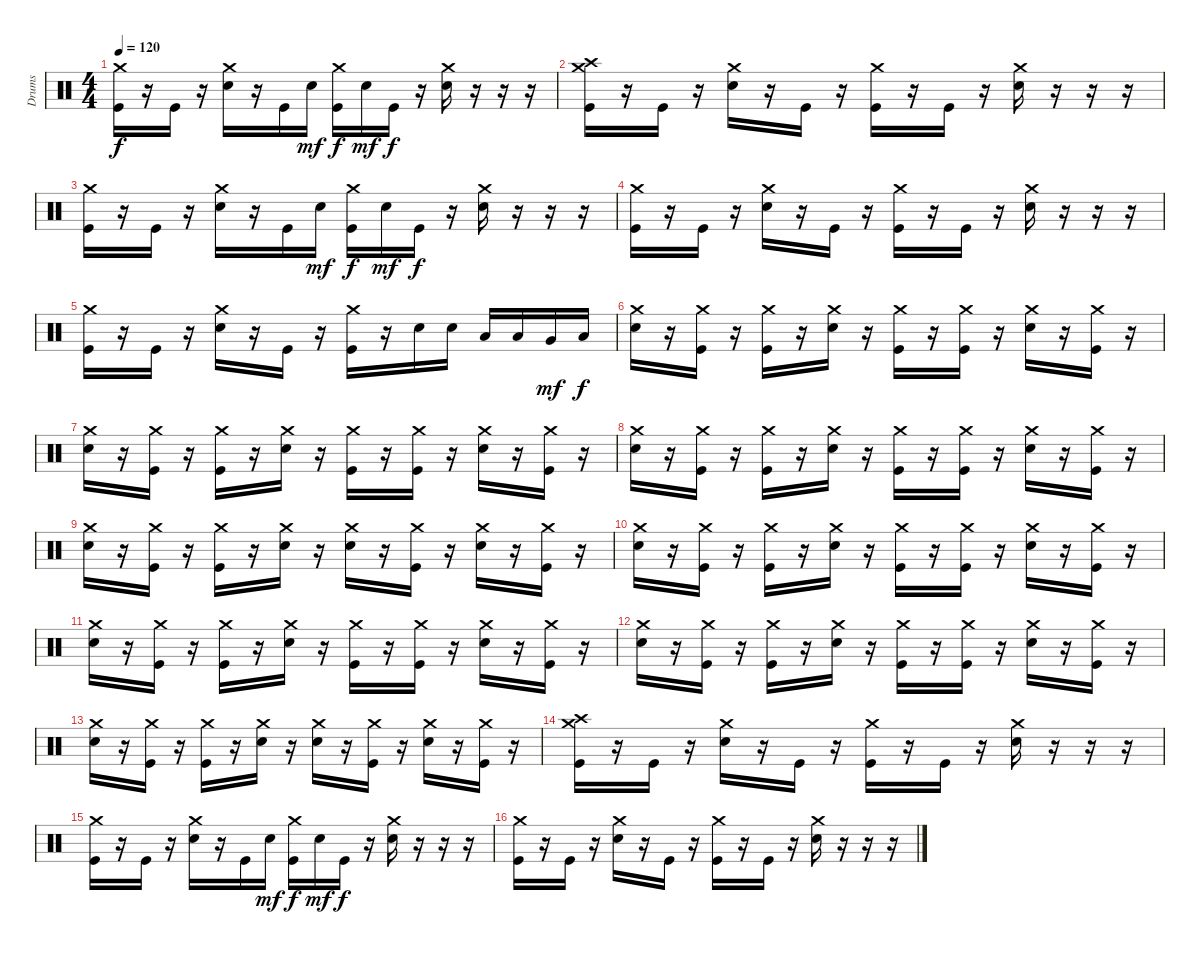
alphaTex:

\track ("Drums" "Drums") {instrument percussion}
\staff {score}
\articulation defaults
\ts (4 4)
\tempo 120
\clef neutral
\ks c
("Kick (hit)" "Crash medium (hit)").16{dy f} r.16 "Kick (hit)".16 r.16 ("Electric Snare (hit)" "Crash medium (hit)").16 r.16 "Kick (hit)".16 "Electric Snare (hit)".16{dy mf} ("Kick (hit)" "Crash medium (hit)").16{dy f} "Electric Snare (hit)".16{dy mf} "Kick (hit)".16{dy f} r.16 ("Electric Snare (hit)" "Crash medium (hit)").16 r.16 r.16 r.16 |
("Kick (hit)" "Crash high (hit)" "Crash medium (hit)").16 r.16 "Kick (hit)".16 r.16 ("Electric Snare (hit)" "Crash medium (hit)").16 r.16 "Kick (hit)".16 r.16 ("Kick (hit)" "Crash medium (hit)").16 r.16 "Kick (hit)".16 r.16 ("Electric Snare (hit)" "Crash medium (hit)").16 r.16 r.16 r.16 |
("Kick (hit)" "Crash medium (hit)").16 r.16 "Kick (hit)".16 r.16 ("Electric Snare (hit)" "Crash medium (hit)").16 r.16 "Kick (hit)".16 "Electric Snare (hit)".16{dy mf} ("Kick (hit)" "Crash medium (hit)").16{dy f} "Electric Snare (hit)".16{dy mf} "Kick (hit)".16{dy f} r.16 ("Electric Snare (hit)" "Crash medium (hit)").16 r.16 r.16 r.16 |
("Kick (hit)" "Crash medium (hit)").16 r.16 "Kick (hit)".16 r.16 ("Electric Snare (hit)" "Crash medium (hit)").16 r.16 "Kick (hit)".16 r.16 ("Kick (hit)" "Crash medium (hit)").16 r.16 "Kick (hit)".16 r.16 ("Electric Snare (hit)" "Crash medium (hit)").16 r.16 r.16 r.16 |
("Kick (hit)" "Crash medium (hit)").16 r.16 "Kick (hit)".16 r.16 ("Electric Snare (hit)" "Crash medium (hit)").16 r.16 "Kick (hit)".16 r.16 ("Kick (hit)" "Crash medium (hit)").16 r.16 "Electric Snare (hit)".16 "Electric Snare (hit)".16 "Low Tom (hit)".16 "Low Tom (hit)".16 "Very Low Tom (hit)".16{dy mf} "Low Floor Tom (hit)".16{dy f} |
("Electric Snare (hit)" "Crash medium (hit)").16 r.16 ("Kick (hit)" "Crash medium (hit)").16 r.16 ("Kick (hit)" "Crash medium (hit)").16 r.16 ("Electric Snare (hit)" "Crash medium (hit)").16 r.16 ("Kick (hit)" "Crash medium (hit)").16 r.16 ("Kick (hit)" "Crash medium (hit)").16 r.16 ("Electric Snare (hit)" "Crash medium (hit)").16 r.16 ("Kick (hit)" "Crash medium (hit)").16 r.16 |
("Electric Snare (hit)" "Crash medium (hit)").16 r.16 ("Kick (hit)" "Crash medium (hit)").16 r.16 ("Kick (hit)" "Crash medium (hit)").16 r.16 ("Electric Snare (hit)" "Crash medium (hit)").16 r.16 ("Kick (hit)" "Crash medium (hit)").16 r.16 ("Kick (hit)" "Crash medium (hit)").16 r.16 ("Electric Snare (hit)" "Crash medium (hit)").16 r.16 ("Kick (hit)" "Crash medium (hit)").16 r.16 |
("Electric Snare (hit)" "Crash medium (hit)").16 r.16 ("Kick (hit)" "Crash medium (hit)").16 r.16 ("Kick (hit)" "Crash medium (hit)").16 r.16 ("Electric Snare (hit)" "Crash medium (hit)").16 r.16 ("Kick (hit)" "Crash medium (hit)").16 r.16 ("Kick (hit)" "Crash medium (hit)").16 r.16 ("Electric Snare (hit)" "Crash medium (hit)").16 r.16 ("Kick (hit)" "Crash medium (hit)").16 r.16 |
("Electric Snare (hit)" "Crash medium (hit)").16 r.16 ("Kick (hit)" "Crash medium (hit)").16 r.16 ("Kick (hit)" "Crash medium (hit)").16 r.16 ("Electric Snare (hit)" "Crash medium (hit)").16 r.16 ("Electric Snare (hit)" "Crash medium (hit)").16 r.16 ("Kick (hit)" "Crash medium (hit)").16 r.16 ("Electric Snare (hit)" "Crash medium (hit)").16 r.16 ("Kick (hit)" "Crash medium (hit)").16 r.16 |
("Electric Snare (hit)" "Crash medium (hit)").16 r.16 ("Kick (hit)" "Crash medium (hit)").16 r.16 ("Kick (hit)" "Crash medium (hit)").16 r.16 ("Electric Snare (hit)" "Crash medium (hit)").16 r.16 ("Kick (hit)" "Crash medium (hit)").16 r.16 ("Kick (hit)" "Crash medium (hit)").16 r.16 ("Electric Snare (hit)" "Crash medium (hit)").16 r.16 ("Kick (hit)" "Crash medium (hit)").16 r.16 |
("Electric Snare (hit)" "Crash medium (hit)").16 r.16 ("Kick (hit)" "Crash medium (hit)").16 r.16 ("Kick (hit)" "Crash medium (hit)").16 r.16 ("Electric Snare (hit)" "Crash medium (hit)").16 r.16 ("Kick (hit)" "Crash medium (hit)").16 r.16 ("Kick (hit)" "Crash medium (hit)").16 r.16 ("Electric Snare (hit)" "Crash medium (hit)").16 r.16 ("Kick (hit)" "Crash medium (hit)").16 r.16 |
("Electric Snare (hit)" "Crash medium (hit)").16 r.16 ("Kick (hit)" "Crash medium (hit)").16 r.16 ("Kick (hit)" "Crash medium (hit)").16 r.16 ("Electric Snare (hit)" "Crash medium (hit)").16 r.16 ("Kick (hit)" "Crash medium (hit)").16 r.16 ("Kick (hit)" "Crash medium (hit)").16 r.16 ("Electric Snare (hit)" "Crash medium (hit)").16 r.16 ("Kick (hit)" "Crash medium (hit)").16 r.16 |
("Electric Snare (hit)" "Crash medium (hit)").16 r.16 ("Kick (hit)" "Crash medium (hit)").16 r.16 ("Kick (hit)" "Crash medium (hit)").16 r.16 ("Electric Snare (hit)" "Crash medium (hit)").16 r.16 ("Electric Snare (hit)" "Crash medium (hit)").16 r.16 ("Kick (hit)" "Crash medium (hit)").16 r.16 ("Electric Snare (hit)" "Crash medium (hit)").16 r.16 ("Kick (hit)" "Crash medium (hit)").16 r.16 |
("Kick (hit)" "Crash high (hit)" "Crash medium (hit)").16 r.16 "Kick (hit)".16 r.16 ("Electric Snare (hit)" "Crash medium (hit)").16 r.16 "Kick (hit)".16 r.16 ("Kick (hit)" "Crash medium (hit)").16 r.16 "Kick (hit)".16 r.16 ("Electric Snare (hit)" "Crash medium (hit)").16 r.16 r.16 r.16 |
("Kick (hit)" "Crash medium (hit)").16 r.16 "Kick (hit)".16 r.16 ("Electric Snare (hit)" "Crash medium (hit)").16 r.16 "Kick (hit)".16 "Electric Snare (hit)".16{dy mf} ("Kick (hit)" "Crash medium (hit)").16{dy f} "Electric Snare (hit)".16{dy mf} "Kick (hit)".16{dy f} r.16 ("Electric Snare (hit)" "Crash medium (hit)").16 r.16 r.16 r.16 |
("Kick (hit)" "Crash medium (hit)").16 r.16 "Kick (hit)".16 r.16 ("Electric Snare (hit)" "Crash medium (hit)").16 r.16 "Kick (hit)".16 r.16 ("Kick (hit)" "Crash medium (hit)").16 r.16 "Kick (hit)".16 r.16 ("Electric Snare (hit)" "Crash medium (hit)").16 r.16 r.16 r.16
